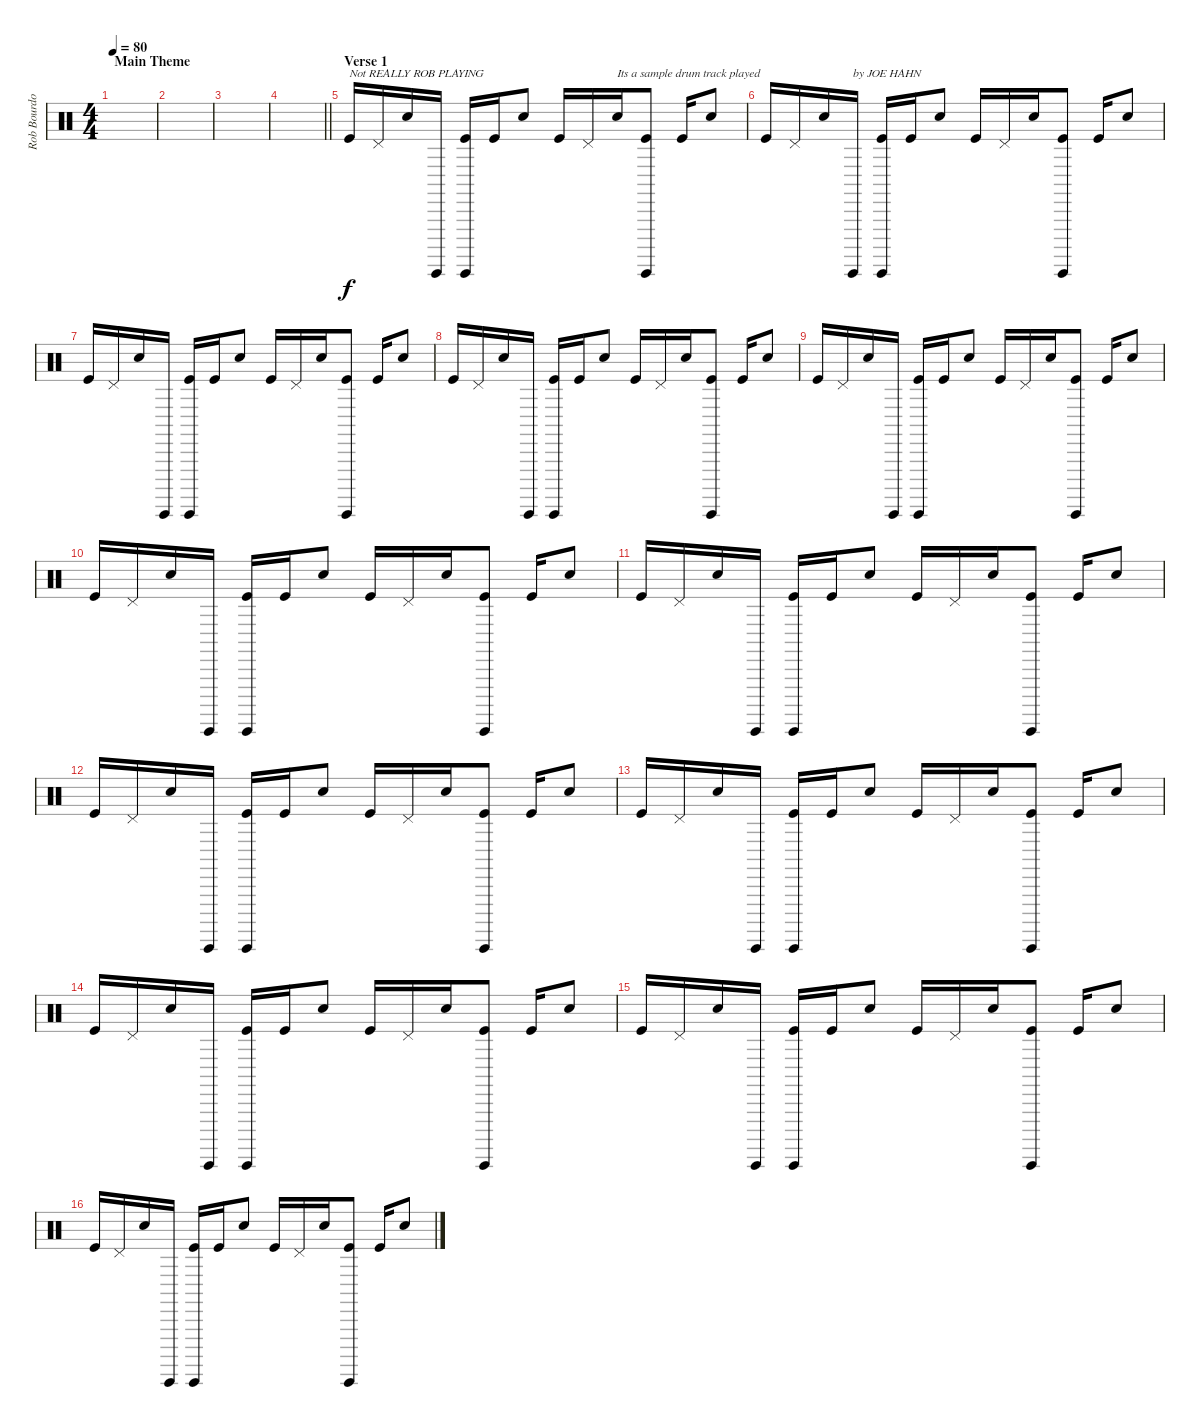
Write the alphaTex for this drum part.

\track ("Rob Bourdon (Batteria)" "Rob Bourdo") {instrument percussion}
\staff {score}
\articulation defaults
\ts (4 4)
\section ("" "Main Theme")
\tempo 80
\clef neutral
\ks c
|
|
|
\barLineRight lightlight
|
\section ("" "Verse 1")
"Kick (hit)".16{txt "Not REALLY ROB PLAYING"} "Pedal Hi-Hat (hit)".16 "Snare (hit) 2".16 "Guiro (hit)".16 ("Guiro (hit)" "Kick (hit)").16 "Kick (hit)".16 "Snare (hit) 2".8 "Kick (hit)".16 "Pedal Hi-Hat (hit)".16 "Snare (hit) 2".16{txt "Its a sample drum track played"} ("Guiro (hit)" "Kick (hit)").8 "Kick (hit)".16 "Snare (hit) 2".8 |
"Kick (hit)".16 "Pedal Hi-Hat (hit)".16 "Snare (hit) 2".16 "Guiro (hit)".16{txt "by JOE HAHN"} ("Guiro (hit)" "Kick (hit)").16 "Kick (hit)".16 "Snare (hit) 2".8 "Kick (hit)".16 "Pedal Hi-Hat (hit)".16 "Snare (hit) 2".16 ("Guiro (hit)" "Kick (hit)").8 "Kick (hit)".16 "Snare (hit) 2".8 |
"Kick (hit)".16 "Pedal Hi-Hat (hit)".16 "Snare (hit) 2".16 "Guiro (hit)".16 ("Guiro (hit)" "Kick (hit)").16 "Kick (hit)".16 "Snare (hit) 2".8 "Kick (hit)".16 "Pedal Hi-Hat (hit)".16 "Snare (hit) 2".16 ("Guiro (hit)" "Kick (hit)").8 "Kick (hit)".16 "Snare (hit) 2".8 |
"Kick (hit)".16 "Pedal Hi-Hat (hit)".16 "Snare (hit) 2".16 "Guiro (hit)".16 ("Guiro (hit)" "Kick (hit)").16 "Kick (hit)".16 "Snare (hit) 2".8 "Kick (hit)".16 "Pedal Hi-Hat (hit)".16 "Snare (hit) 2".16 ("Guiro (hit)" "Kick (hit)").8 "Kick (hit)".16 "Snare (hit) 2".8 |
"Kick (hit)".16 "Pedal Hi-Hat (hit)".16 "Snare (hit) 2".16 "Guiro (hit)".16 ("Guiro (hit)" "Kick (hit)").16 "Kick (hit)".16 "Snare (hit) 2".8 "Kick (hit)".16 "Pedal Hi-Hat (hit)".16 "Snare (hit) 2".16 ("Guiro (hit)" "Kick (hit)").8 "Kick (hit)".16 "Snare (hit) 2".8 |
"Kick (hit)".16 "Pedal Hi-Hat (hit)".16 "Snare (hit) 2".16 "Guiro (hit)".16 ("Guiro (hit)" "Kick (hit)").16 "Kick (hit)".16 "Snare (hit) 2".8 "Kick (hit)".16 "Pedal Hi-Hat (hit)".16 "Snare (hit) 2".16 ("Guiro (hit)" "Kick (hit)").8 "Kick (hit)".16 "Snare (hit) 2".8 |
"Kick (hit)".16 "Pedal Hi-Hat (hit)".16 "Snare (hit) 2".16 "Guiro (hit)".16 ("Guiro (hit)" "Kick (hit)").16 "Kick (hit)".16 "Snare (hit) 2".8 "Kick (hit)".16 "Pedal Hi-Hat (hit)".16 "Snare (hit) 2".16 ("Guiro (hit)" "Kick (hit)").8 "Kick (hit)".16 "Snare (hit) 2".8 |
"Kick (hit)".16 "Pedal Hi-Hat (hit)".16 "Snare (hit) 2".16 "Guiro (hit)".16 ("Guiro (hit)" "Kick (hit)").16 "Kick (hit)".16 "Snare (hit) 2".8 "Kick (hit)".16 "Pedal Hi-Hat (hit)".16 "Snare (hit) 2".16 ("Guiro (hit)" "Kick (hit)").8 "Kick (hit)".16 "Snare (hit) 2".8 |
"Kick (hit)".16 "Pedal Hi-Hat (hit)".16 "Snare (hit) 2".16 "Guiro (hit)".16 ("Guiro (hit)" "Kick (hit)").16 "Kick (hit)".16 "Snare (hit) 2".8 "Kick (hit)".16 "Pedal Hi-Hat (hit)".16 "Snare (hit) 2".16 ("Guiro (hit)" "Kick (hit)").8 "Kick (hit)".16 "Snare (hit) 2".8 |
"Kick (hit)".16 "Pedal Hi-Hat (hit)".16 "Snare (hit) 2".16 "Guiro (hit)".16 ("Guiro (hit)" "Kick (hit)").16 "Kick (hit)".16 "Snare (hit) 2".8 "Kick (hit)".16 "Pedal Hi-Hat (hit)".16 "Snare (hit) 2".16 ("Guiro (hit)" "Kick (hit)").8 "Kick (hit)".16 "Snare (hit) 2".8 |
"Kick (hit)".16 "Pedal Hi-Hat (hit)".16 "Snare (hit) 2".16 "Guiro (hit)".16 ("Guiro (hit)" "Kick (hit)").16 "Kick (hit)".16 "Snare (hit) 2".8 "Kick (hit)".16 "Pedal Hi-Hat (hit)".16 "Snare (hit) 2".16 ("Guiro (hit)" "Kick (hit)").8 "Kick (hit)".16 "Snare (hit) 2".8 |
"Kick (hit)".16 "Pedal Hi-Hat (hit)".16 "Snare (hit) 2".16 "Guiro (hit)".16 ("Guiro (hit)" "Kick (hit)").16 "Kick (hit)".16 "Snare (hit) 2".8 "Kick (hit)".16 "Pedal Hi-Hat (hit)".16 "Snare (hit) 2".16 ("Guiro (hit)" "Kick (hit)").8 "Kick (hit)".16 "Snare (hit) 2".8
